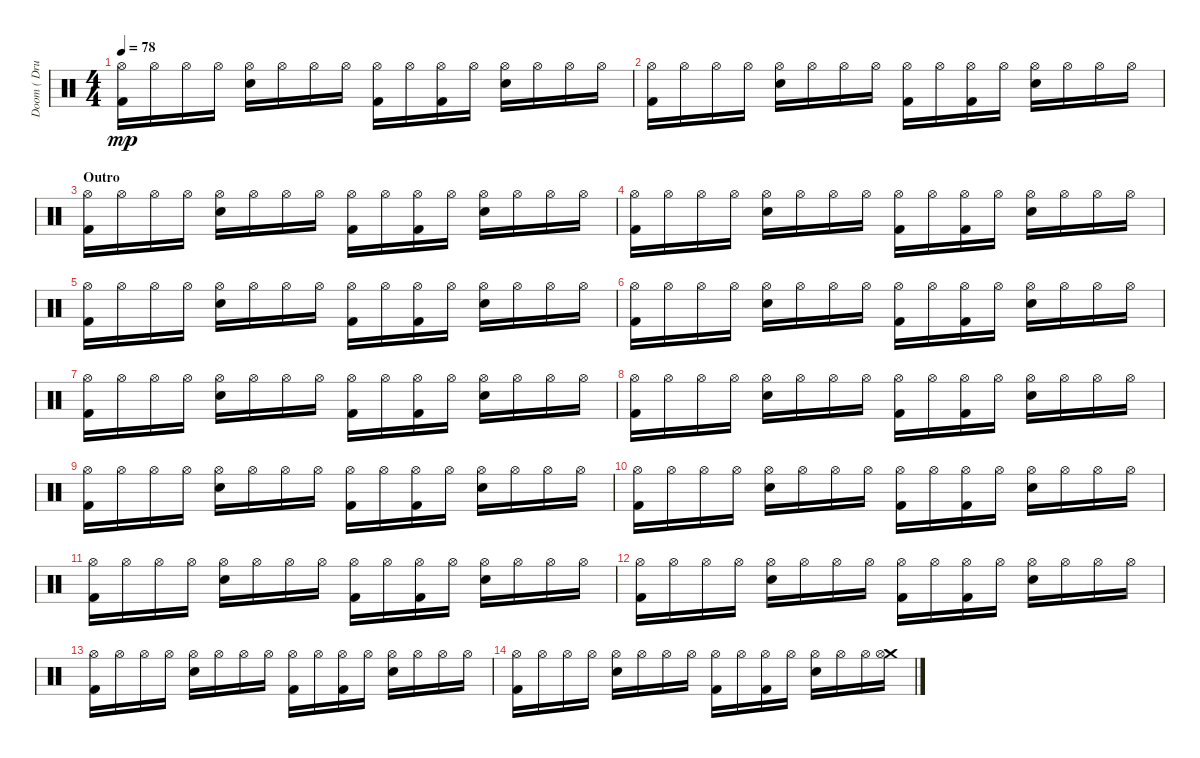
\track ("Doom ( Drums )" "Doom ( Dru") {instrument percussion}
\staff {score}
\articulation defaults
\ts (4 4)
\tempo 78
\clef neutral
\ks c
("Kick (hit) 2" "Hi-Hat (open)").16{dy mp} "Hi-Hat (open)".16 "Hi-Hat (open)".16 "Hi-Hat (open)".16 ("Electric Snare (hit)" "Hi-Hat (open)").16 "Hi-Hat (open)".16 "Hi-Hat (open)".16 "Hi-Hat (open)".16 ("Kick (hit) 2" "Hi-Hat (open)").16 "Hi-Hat (open)".16 ("Kick (hit) 2" "Hi-Hat (open)").16 "Hi-Hat (open)".16 ("Electric Snare (hit)" "Hi-Hat (open)").16 "Hi-Hat (open)".16 "Hi-Hat (open)".16 "Hi-Hat (open)".16 |
("Kick (hit) 2" "Hi-Hat (open)").16 "Hi-Hat (open)".16 "Hi-Hat (open)".16 "Hi-Hat (open)".16 ("Electric Snare (hit)" "Hi-Hat (open)").16 "Hi-Hat (open)".16 "Hi-Hat (open)".16 "Hi-Hat (open)".16 ("Kick (hit) 2" "Hi-Hat (open)").16 "Hi-Hat (open)".16 ("Kick (hit) 2" "Hi-Hat (open)").16 "Hi-Hat (open)".16 ("Electric Snare (hit)" "Hi-Hat (open)").16 "Hi-Hat (open)".16 "Hi-Hat (open)".16 "Hi-Hat (open)".16 |
\section ("" "Outro")
("Kick (hit) 2" "Hi-Hat (open)").16 "Hi-Hat (open)".16 "Hi-Hat (open)".16 "Hi-Hat (open)".16 ("Electric Snare (hit)" "Hi-Hat (open)").16 "Hi-Hat (open)".16 "Hi-Hat (open)".16 "Hi-Hat (open)".16 ("Kick (hit) 2" "Hi-Hat (open)").16 "Hi-Hat (open)".16 ("Kick (hit) 2" "Hi-Hat (open)").16 "Hi-Hat (open)".16 ("Electric Snare (hit)" "Hi-Hat (open)").16 "Hi-Hat (open)".16 "Hi-Hat (open)".16 "Hi-Hat (open)".16 |
("Kick (hit) 2" "Hi-Hat (open)").16 "Hi-Hat (open)".16 "Hi-Hat (open)".16 "Hi-Hat (open)".16 ("Electric Snare (hit)" "Hi-Hat (open)").16 "Hi-Hat (open)".16 "Hi-Hat (open)".16 "Hi-Hat (open)".16 ("Kick (hit) 2" "Hi-Hat (open)").16 "Hi-Hat (open)".16 ("Kick (hit) 2" "Hi-Hat (open)").16 "Hi-Hat (open)".16 ("Electric Snare (hit)" "Hi-Hat (open)").16 "Hi-Hat (open)".16 "Hi-Hat (open)".16 "Hi-Hat (open)".16 |
("Kick (hit) 2" "Hi-Hat (open)").16 "Hi-Hat (open)".16 "Hi-Hat (open)".16 "Hi-Hat (open)".16 ("Electric Snare (hit)" "Hi-Hat (open)").16 "Hi-Hat (open)".16 "Hi-Hat (open)".16 "Hi-Hat (open)".16 ("Kick (hit) 2" "Hi-Hat (open)").16 "Hi-Hat (open)".16 ("Kick (hit) 2" "Hi-Hat (open)").16 "Hi-Hat (open)".16 ("Electric Snare (hit)" "Hi-Hat (open)").16 "Hi-Hat (open)".16 "Hi-Hat (open)".16 "Hi-Hat (open)".16 |
("Kick (hit) 2" "Hi-Hat (open)").16 "Hi-Hat (open)".16 "Hi-Hat (open)".16 "Hi-Hat (open)".16 ("Electric Snare (hit)" "Hi-Hat (open)").16 "Hi-Hat (open)".16 "Hi-Hat (open)".16 "Hi-Hat (open)".16 ("Kick (hit) 2" "Hi-Hat (open)").16 "Hi-Hat (open)".16 ("Kick (hit) 2" "Hi-Hat (open)").16 "Hi-Hat (open)".16 ("Electric Snare (hit)" "Hi-Hat (open)").16 "Hi-Hat (open)".16 "Hi-Hat (open)".16 "Hi-Hat (open)".16 |
("Kick (hit) 2" "Hi-Hat (open)").16 "Hi-Hat (open)".16 "Hi-Hat (open)".16 "Hi-Hat (open)".16 ("Electric Snare (hit)" "Hi-Hat (open)").16 "Hi-Hat (open)".16 "Hi-Hat (open)".16 "Hi-Hat (open)".16 ("Kick (hit) 2" "Hi-Hat (open)").16 "Hi-Hat (open)".16 ("Kick (hit) 2" "Hi-Hat (open)").16 "Hi-Hat (open)".16 ("Electric Snare (hit)" "Hi-Hat (open)").16 "Hi-Hat (open)".16 "Hi-Hat (open)".16 "Hi-Hat (open)".16 |
("Kick (hit) 2" "Hi-Hat (open)").16 "Hi-Hat (open)".16 "Hi-Hat (open)".16 "Hi-Hat (open)".16 ("Electric Snare (hit)" "Hi-Hat (open)").16 "Hi-Hat (open)".16 "Hi-Hat (open)".16 "Hi-Hat (open)".16 ("Kick (hit) 2" "Hi-Hat (open)").16 "Hi-Hat (open)".16 ("Kick (hit) 2" "Hi-Hat (open)").16 "Hi-Hat (open)".16 ("Electric Snare (hit)" "Hi-Hat (open)").16 "Hi-Hat (open)".16 "Hi-Hat (open)".16 "Hi-Hat (open)".16 |
("Kick (hit) 2" "Hi-Hat (open)").16 "Hi-Hat (open)".16 "Hi-Hat (open)".16 "Hi-Hat (open)".16 ("Electric Snare (hit)" "Hi-Hat (open)").16 "Hi-Hat (open)".16 "Hi-Hat (open)".16 "Hi-Hat (open)".16 ("Kick (hit) 2" "Hi-Hat (open)").16 "Hi-Hat (open)".16 ("Kick (hit) 2" "Hi-Hat (open)").16 "Hi-Hat (open)".16 ("Electric Snare (hit)" "Hi-Hat (open)").16 "Hi-Hat (open)".16 "Hi-Hat (open)".16 "Hi-Hat (open)".16 |
("Kick (hit) 2" "Hi-Hat (open)").16 "Hi-Hat (open)".16 "Hi-Hat (open)".16 "Hi-Hat (open)".16 ("Electric Snare (hit)" "Hi-Hat (open)").16 "Hi-Hat (open)".16 "Hi-Hat (open)".16 "Hi-Hat (open)".16 ("Kick (hit) 2" "Hi-Hat (open)").16 "Hi-Hat (open)".16 ("Kick (hit) 2" "Hi-Hat (open)").16 "Hi-Hat (open)".16 ("Electric Snare (hit)" "Hi-Hat (open)").16 "Hi-Hat (open)".16 "Hi-Hat (open)".16 "Hi-Hat (open)".16 |
("Kick (hit) 2" "Hi-Hat (open)").16 "Hi-Hat (open)".16 "Hi-Hat (open)".16 "Hi-Hat (open)".16 ("Electric Snare (hit)" "Hi-Hat (open)").16 "Hi-Hat (open)".16 "Hi-Hat (open)".16 "Hi-Hat (open)".16 ("Kick (hit) 2" "Hi-Hat (open)").16 "Hi-Hat (open)".16 ("Kick (hit) 2" "Hi-Hat (open)").16 "Hi-Hat (open)".16 ("Electric Snare (hit)" "Hi-Hat (open)").16 "Hi-Hat (open)".16 "Hi-Hat (open)".16 "Hi-Hat (open)".16 |
("Kick (hit) 2" "Hi-Hat (open)").16 "Hi-Hat (open)".16 "Hi-Hat (open)".16 "Hi-Hat (open)".16 ("Electric Snare (hit)" "Hi-Hat (open)").16 "Hi-Hat (open)".16 "Hi-Hat (open)".16 "Hi-Hat (open)".16 ("Kick (hit) 2" "Hi-Hat (open)").16 "Hi-Hat (open)".16 ("Kick (hit) 2" "Hi-Hat (open)").16 "Hi-Hat (open)".16 ("Electric Snare (hit)" "Hi-Hat (open)").16 "Hi-Hat (open)".16 "Hi-Hat (open)".16 "Hi-Hat (open)".16 |
("Kick (hit) 2" "Hi-Hat (open)").16 "Hi-Hat (open)".16 "Hi-Hat (open)".16 "Hi-Hat (open)".16 ("Electric Snare (hit)" "Hi-Hat (open)").16 "Hi-Hat (open)".16 "Hi-Hat (open)".16 "Hi-Hat (open)".16 ("Kick (hit) 2" "Hi-Hat (open)").16 "Hi-Hat (open)".16 ("Kick (hit) 2" "Hi-Hat (open)").16 "Hi-Hat (open)".16 ("Electric Snare (hit)" "Hi-Hat (open)").16 "Hi-Hat (open)".16 "Hi-Hat (open)".16 "Hi-Hat (open)".16 |
("Kick (hit) 2" "Hi-Hat (open)").16 "Hi-Hat (open)".16 "Hi-Hat (open)".16 "Hi-Hat (open)".16 ("Electric Snare (hit)" "Hi-Hat (open)").16 "Hi-Hat (open)".16 "Hi-Hat (open)".16 "Hi-Hat (open)".16 ("Kick (hit) 2" "Hi-Hat (open)").16 "Hi-Hat (open)".16 ("Kick (hit) 2" "Hi-Hat (open)").16 "Hi-Hat (open)".16 ("Electric Snare (hit)" "Hi-Hat (open)").16 "Hi-Hat (open)".16 "Hi-Hat (open)".16 ("Crash medium (hit)" "Hi-Hat (open)").16
